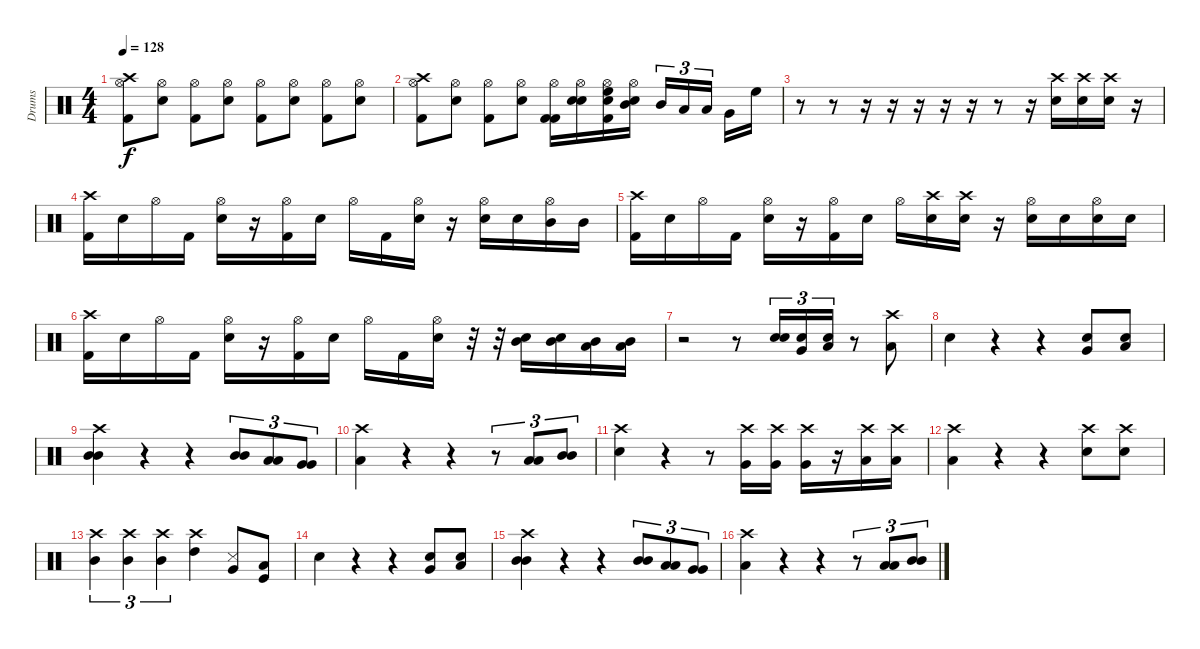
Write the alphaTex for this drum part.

\track ("Drums" "Drums") {instrument percussion}
\staff {score}
\articulation defaults
\ts (4 4)
\tempo 128
\clef neutral
\ks c
("Crash high (hit)" "Hi-Hat (open)" "Kick (hit) 2").8{dy f} ("Hi-Hat (open)" "Snare (hit) 2").8 ("Hi-Hat (open)" "Kick (hit) 2").8 ("Hi-Hat (open)" "Snare (hit) 2").8 ("Hi-Hat (open)" "Kick (hit) 2").8 ("Hi-Hat (open)" "Snare (hit) 2").8 ("Hi-Hat (open)" "Kick (hit) 2").8 ("Hi-Hat (open)" "Snare (hit) 2").8 |
("Crash high (hit)" "Hi-Hat (open)" "Kick (hit) 2").8 ("Hi-Hat (open)" "Snare (hit) 2").8 ("Hi-Hat (open)" "Kick (hit) 2").8 ("Hi-Hat (open)" "Snare (hit) 2").8 ("Hi-Hat (open)" "Kick (hit) 2" "Kick (hit) 2").16 ("Hi-Hat (open)" "Snare (hit) 2" "Electric Snare (hit)").16 ("Hi-Hat (open)" "High Floor Tom (hit)" "Electric Snare (hit)" "Kick (hit) 2").16 ("Hi-Hat (open)" "Snare (hit) 2" "Mid Tom (hit)").16 "Mid Tom (hit)".16{tu (3 2)} "Low Tom (hit)".16{tu (3 2)} "Low Tom (hit)".16{tu (3 2)} "Very Low Tom (hit)".16 "High Floor Tom (hit)".16 |
r.8 r.8 r.16 r.16 r.16 r.16 r.16 r.8 r.16 ("Snare (hit) 2" "Crash high (hit)").16 ("Snare (hit) 2" "Crash high (hit)").16 ("Snare (hit) 2" "Crash high (hit)").16 r.16 |
("Kick (hit) 2" "Crash high (hit)").16 "Electric Snare (hit)".16 "Hi-Hat (open)".16 "Kick (hit) 2".16 ("Electric Snare (hit)" "Hi-Hat (open)").16 r.16 ("Kick (hit) 2" "Hi-Hat (open)").16 "Electric Snare (hit)".16 "Hi-Hat (open)".16 "Kick (hit) 2".16 ("Electric Snare (hit)" "Hi-Hat (open)").16 r.16 ("Electric Snare (hit)" "Hi-Hat (open)").16 "Electric Snare (hit)".16 ("Mid Tom (hit)" "Hi-Hat (open)").16 "Mid Tom (hit)".16 |
("Kick (hit) 2" "Crash high (hit)").16 "Electric Snare (hit)".16 "Hi-Hat (open)".16 "Kick (hit) 2".16 ("Electric Snare (hit)" "Hi-Hat (open)").16 r.16 ("Kick (hit) 2" "Hi-Hat (open)").16 "Electric Snare (hit)".16 "Hi-Hat (open)".16 ("Snare (hit) 2" "Crash high (hit)").16 ("Snare (hit) 2" "Crash high (hit)").16 r.16 ("Electric Snare (hit)" "Hi-Hat (open)").16 "Electric Snare (hit)".16 ("Electric Snare (hit)" "Hi-Hat (open)").16 "Electric Snare (hit)".16 |
("Kick (hit) 2" "Crash high (hit)").16 "Electric Snare (hit)".16 "Hi-Hat (open)".16 "Kick (hit) 2".16 ("Electric Snare (hit)" "Hi-Hat (open)").16 r.16 ("Kick (hit) 2" "Hi-Hat (open)").16 "Electric Snare (hit)".16 "Hi-Hat (open)".16 "Kick (hit) 2".16 ("Electric Snare (hit)" "Hi-Hat (open)").16 r.32 r.32 ("Electric Snare (hit)" "Mid Tom (hit)").16 ("Electric Snare (hit)" "Mid Tom (hit)").16 ("Low Tom (hit)" "Mid Tom (hit)").16 ("Low Tom (hit)" "Mid Tom (hit)").16 |
r.2 r.8 ("Electric Snare (hit)" "Snare (hit) 2").16{tu (3 2)} ("Very Low Tom (hit)" "Snare (hit) 2").16{tu (3 2)} ("Low Tom (hit)" "Snare (hit) 2").16{tu (3 2)} r.8 ("Crash high (hit)" "Low Floor Tom (hit)").8 |
"Electric Snare (hit)".4 r.4 r.4 ("Electric Snare (hit)" "Very Low Tom (hit)").8 ("Electric Snare (hit)" "Low Tom (hit)").8 |
("Mid Tom (hit)" "Crash high (hit)" "Mid Tom (hit)").4 r.4 r.4 ("Mid Tom (hit)" "Mid Tom (hit)").8{tu (3 2)} ("Low Tom (hit)" "Low Tom (hit)").8{tu (3 2)} ("Very Low Tom (hit)" "Very Low Tom (hit)").8{tu (3 2)} |
("Crash high (hit)" "Low Tom (hit)").4 r.4 r.4 r.8{tu (3 2)} ("Low Tom (hit)" "Low Tom (hit)").8{tu (3 2)} ("Mid Tom (hit)" "Mid Tom (hit)").8{tu (3 2)} |
("Crash high (hit)" "Electric Snare (hit)").4 r.4 r.8 ("Crash high (hit)" "Very Low Tom (hit)").16 ("Crash high (hit)" "Very Low Tom (hit)").16 ("Crash high (hit)" "Very Low Tom (hit)").16 r.16 ("Crash high (hit)" "Low Tom (hit)").16 ("Crash high (hit)" "Low Tom (hit)").16 |
("Crash high (hit)" "Low Tom (hit)").4 r.4 r.4 ("Crash high (hit)" "Electric Snare (hit)").8 ("Crash high (hit)" "Electric Snare (hit)").8 |
("Mid Tom (hit)" "Crash high (hit)").4{tu (3 2)} ("Mid Tom (hit)" "Crash high (hit)").4{tu (3 2)} ("Mid Tom (hit)" "Crash high (hit)").4{tu (3 2)} ("High Tom (hit)" "Crash high (hit)").4 ("Very Low Tom (hit)" "Metronome (hit)").8 ("Low Tom (hit)" "Kick (hit)").8 |
"Electric Snare (hit)".4 r.4 r.4 ("Electric Snare (hit)" "Very Low Tom (hit)").8 ("Electric Snare (hit)" "Low Tom (hit)").8 |
("Mid Tom (hit)" "Crash high (hit)" "Mid Tom (hit)").4 r.4 r.4 ("Mid Tom (hit)" "Mid Tom (hit)").8{tu (3 2)} ("Low Tom (hit)" "Low Tom (hit)").8{tu (3 2)} ("Very Low Tom (hit)" "Very Low Tom (hit)").8{tu (3 2)} |
("Crash high (hit)" "Low Tom (hit)").4 r.4 r.4 r.8{tu (3 2)} ("Low Tom (hit)" "Low Tom (hit)").8{tu (3 2)} ("Mid Tom (hit)" "Mid Tom (hit)").8{tu (3 2)}
